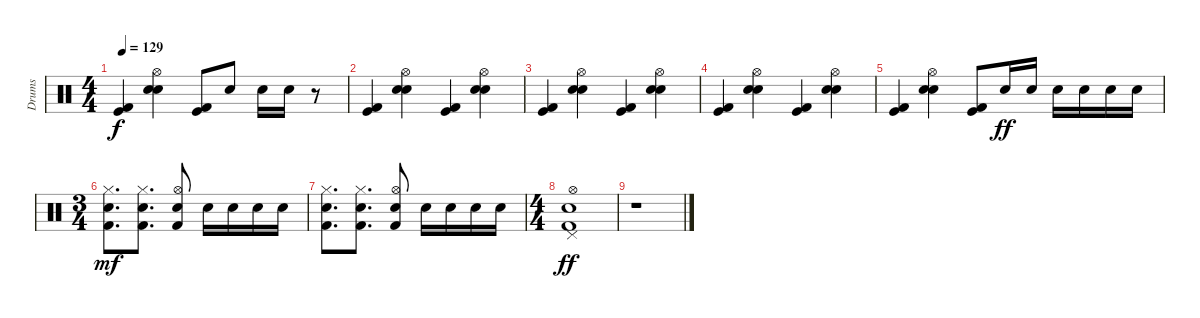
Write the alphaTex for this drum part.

\track ("Drums" "Drums") {instrument percussion}
\staff {score}
\articulation defaults
\ts (4 4)
\tempo 129
\clef neutral
\ks c
("Kick (hit)" "Kick (hit) 2").4{dy f} ("Electric Snare (hit)" "Hi-Hat (open)" "Snare (hit) 2").4 ("Kick (hit)" "Kick (hit) 2").8 "Snare (hit) 2".8 "Snare (hit) 2".16 "Snare (hit) 2".16 r.8 |
("Kick (hit)" "Kick (hit) 2").4 ("Electric Snare (hit)" "Hi-Hat (open)" "Snare (hit) 2").4 ("Kick (hit)" "Kick (hit) 2").4 ("Electric Snare (hit)" "Hi-Hat (open)" "Snare (hit) 2").4 |
("Kick (hit)" "Kick (hit) 2").4 ("Electric Snare (hit)" "Hi-Hat (open)" "Snare (hit) 2").4 ("Kick (hit)" "Kick (hit) 2").4 ("Electric Snare (hit)" "Hi-Hat (open)" "Snare (hit) 2").4 |
("Kick (hit)" "Kick (hit) 2").4 ("Electric Snare (hit)" "Hi-Hat (open)" "Snare (hit) 2").4 ("Kick (hit)" "Kick (hit) 2").4 ("Electric Snare (hit)" "Hi-Hat (open)" "Snare (hit) 2").4 |
("Kick (hit)" "Kick (hit) 2").4 ("Electric Snare (hit)" "Hi-Hat (open)" "Snare (hit) 2").4 ("Kick (hit)" "Kick (hit) 2").8 "Snare (hit) 2".16{dy ff} "Snare (hit) 2".16 "Snare (hit) 2".16 "Snare (hit) 2".16 "Snare (hit) 2".16 "Snare (hit) 2".16 |
\ts (3 4)
("Kick (hit) 2" "Snare (hit) 2" "Hi-Hat (closed)").8{d dy mf} ("Kick (hit) 2" "Snare (hit) 2" "Hi-Hat (closed)").8{d} ("Kick (hit) 2" "Snare (hit) 2" "Hi-Hat (open)").8 "Snare (hit) 2".16 "Snare (hit) 2".16 "Snare (hit) 2".16 "Snare (hit) 2".16 |
("Kick (hit) 2" "Snare (hit) 2" "Hi-Hat (closed)").8{d} ("Kick (hit) 2" "Snare (hit) 2" "Hi-Hat (closed)").8{d} ("Kick (hit) 2" "Snare (hit) 2" "Hi-Hat (open)").8 "Snare (hit) 2".16 "Snare (hit) 2".16 "Snare (hit) 2".16 "Snare (hit) 2".16 |
\ts (4 4)
("Pedal Hi-Hat (hit)" "Hi-Hat (open)" "Kick (hit) 2" "Electric Snare (hit)").1{dy ff} |
r.1
